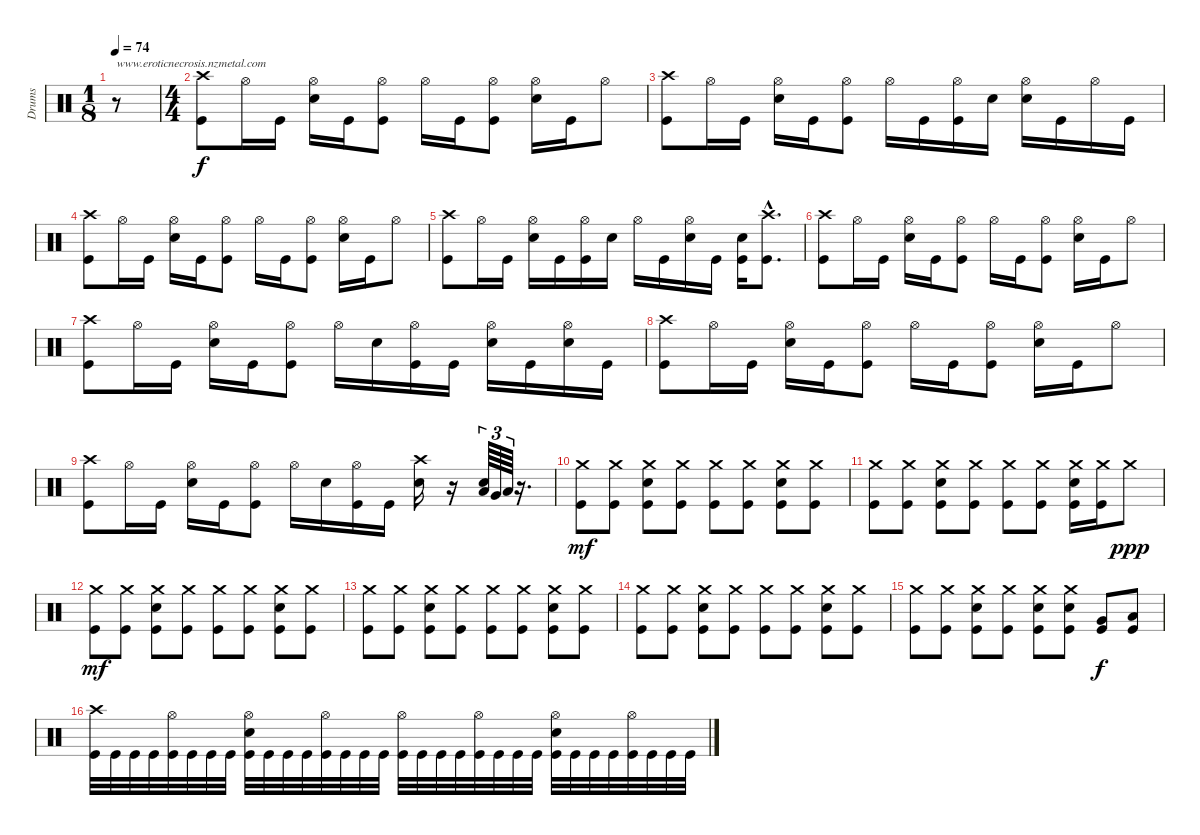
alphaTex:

\track ("Drums" "Drums") {instrument percussion}
\staff {score}
\articulation defaults
\ts (1 8)
\section ("" "")
\tempo 74
\clef neutral
\ks c
r.8{txt "www.eroticnecrosis.nzmetal.com" dy f} |
\ts (4 4)
("Crash high (hit)" "Kick (hit)").8 "Hi-Hat (open)".16 "Kick (hit)".16 ("Hi-Hat (open)" "Snare (hit) 2").16 "Kick (hit)".16 ("Hi-Hat (open)" "Kick (hit)").8 "Hi-Hat (open)".16 "Kick (hit)".16 ("Hi-Hat (open)" "Kick (hit)").8 ("Hi-Hat (open)" "Snare (hit) 2").16 "Kick (hit)".16 "Hi-Hat (open)".8 |
("Crash high (hit)" "Kick (hit)").8 "Hi-Hat (open)".16 "Kick (hit)".16 ("Hi-Hat (open)" "Snare (hit) 2").16 "Kick (hit)".16 ("Hi-Hat (open)" "Kick (hit)").8 "Hi-Hat (open)".16 "Kick (hit)".16 ("Hi-Hat (open)" "Kick (hit)").16 "Snare (hit) 2".16 ("Hi-Hat (open)" "Snare (hit) 2").16 "Kick (hit)".16 "Hi-Hat (open)".16 "Kick (hit)".16 |
("Crash high (hit)" "Kick (hit)").8 "Hi-Hat (open)".16 "Kick (hit)".16 ("Hi-Hat (open)" "Snare (hit) 2").16 "Kick (hit)".16 ("Hi-Hat (open)" "Kick (hit)").8 "Hi-Hat (open)".16 "Kick (hit)".16 ("Hi-Hat (open)" "Kick (hit)").8 ("Hi-Hat (open)" "Snare (hit) 2").16 "Kick (hit)".16 "Hi-Hat (open)".8 |
("Crash high (hit)" "Kick (hit)").8 "Hi-Hat (open)".16 "Kick (hit)".16 ("Hi-Hat (open)" "Snare (hit) 2").16 "Kick (hit)".16 ("Hi-Hat (open)" "Kick (hit)").16 "Snare (hit) 2".16 "Hi-Hat (open)".16 "Kick (hit)".16 ("Hi-Hat (open)" "Snare (hit) 2").16 "Kick (hit)".16 ("Snare (hit) 2" "Kick (hit)").16 ("Crash high (hit)"{hac} "Kick (hit)"{hac}).8{d} |
("Crash high (hit)" "Kick (hit)").8 "Hi-Hat (open)".16 "Kick (hit)".16 ("Hi-Hat (open)" "Snare (hit) 2").16 "Kick (hit)".16 ("Hi-Hat (open)" "Kick (hit)").8 "Hi-Hat (open)".16 "Kick (hit)".16 ("Hi-Hat (open)" "Kick (hit)").8 ("Hi-Hat (open)" "Snare (hit) 2").16 "Kick (hit)".16 "Hi-Hat (open)".8 |
("Crash high (hit)" "Kick (hit)").8 "Hi-Hat (open)".16 "Kick (hit)".16 ("Hi-Hat (open)" "Snare (hit) 2").16 "Kick (hit)".16 ("Hi-Hat (open)" "Kick (hit)").8 "Hi-Hat (open)".16 "Snare (hit) 2".16 ("Hi-Hat (open)" "Kick (hit)").16 "Kick (hit)".16 ("Hi-Hat (open)" "Snare (hit) 2").16 "Kick (hit)".16 ("Hi-Hat (open)" "Snare (hit) 2").16 "Kick (hit)".16 |
("Crash high (hit)" "Kick (hit)").8 "Hi-Hat (open)".16 "Kick (hit)".16 ("Hi-Hat (open)" "Snare (hit) 2").16 "Kick (hit)".16 ("Hi-Hat (open)" "Kick (hit)").8 "Hi-Hat (open)".16 "Kick (hit)".16 ("Hi-Hat (open)" "Kick (hit)").8 ("Hi-Hat (open)" "Snare (hit) 2").16 "Kick (hit)".16 "Hi-Hat (open)".8 |
("Crash high (hit)" "Kick (hit)").8 "Hi-Hat (open)".16 "Kick (hit)".16 ("Hi-Hat (open)" "Snare (hit) 2").16 "Kick (hit)".16 ("Hi-Hat (open)" "Kick (hit)").8 "Hi-Hat (open)".16 "Snare (hit) 2".16 ("Hi-Hat (open)" "Kick (hit)").16 "Kick (hit)".16 ("Crash high (hit)" "Snare (hit) 2").16 r.16 ("Low Tom (hit)" "Snare (hit) 2").64{tu (3 2)} "Very Low Tom (hit)".64{tu (3 2)} "Low Floor Tom (hit)".64{tu (3 2)} r.16{d} |
\section ("" "")
("Crash medium (hit)" "Kick (hit)").8{dy mf} ("Crash medium (hit)" "Kick (hit)").8 ("Crash medium (hit)" "Snare (hit) 2" "Kick (hit)").8 ("Crash medium (hit)" "Kick (hit)").8 ("Crash medium (hit)" "Kick (hit)").8 ("Crash medium (hit)" "Kick (hit)").8 ("Crash medium (hit)" "Snare (hit) 2" "Kick (hit)").8 ("Crash medium (hit)" "Kick (hit)").8 |
("Crash medium (hit)" "Kick (hit)").8 ("Crash medium (hit)" "Kick (hit)").8 ("Crash medium (hit)" "Snare (hit) 2" "Kick (hit)").8 ("Crash medium (hit)" "Kick (hit)").8 ("Crash medium (hit)" "Kick (hit)").8 ("Crash medium (hit)" "Kick (hit)").8 ("Crash medium (hit)" "Snare (hit) 2" "Kick (hit)").16 ("Crash medium (hit)" "Kick (hit)").16 "Crash medium (hit)".8{dy ppp} |
("Crash medium (hit)" "Kick (hit)").8{dy mf} ("Crash medium (hit)" "Kick (hit)").8 ("Crash medium (hit)" "Snare (hit) 2" "Kick (hit)").8 ("Crash medium (hit)" "Kick (hit)").8 ("Crash medium (hit)" "Kick (hit)").8 ("Crash medium (hit)" "Kick (hit)").8 ("Crash medium (hit)" "Snare (hit) 2" "Kick (hit)").8 ("Crash medium (hit)" "Kick (hit)").8 |
("Crash medium (hit)" "Kick (hit)").8 ("Crash medium (hit)" "Kick (hit)").8 ("Crash medium (hit)" "Snare (hit) 2" "Kick (hit)").8 ("Crash medium (hit)" "Kick (hit)").8 ("Crash medium (hit)" "Kick (hit)").8 ("Crash medium (hit)" "Kick (hit)").8 ("Crash medium (hit)" "Snare (hit) 2" "Kick (hit)").8 ("Crash medium (hit)" "Kick (hit)").8 |
("Crash medium (hit)" "Kick (hit)").8 ("Crash medium (hit)" "Kick (hit)").8 ("Crash medium (hit)" "Snare (hit) 2" "Kick (hit)").8 ("Crash medium (hit)" "Kick (hit)").8 ("Crash medium (hit)" "Kick (hit)").8 ("Crash medium (hit)" "Kick (hit)").8 ("Crash medium (hit)" "Snare (hit) 2" "Kick (hit)").8 ("Crash medium (hit)" "Kick (hit)").8 |
("Crash medium (hit)" "Kick (hit)").8 ("Crash medium (hit)" "Kick (hit)").8 ("Crash medium (hit)" "Snare (hit) 2" "Kick (hit)").8 ("Crash medium (hit)" "Kick (hit)").8 ("Crash medium (hit)" "Snare (hit) 2" "Kick (hit)").8 ("Crash medium (hit)" "Snare (hit) 2" "Kick (hit)").8 ("Very Low Tom (hit)" "Kick (hit)").8{dy f} ("Low Floor Tom (hit)" "Kick (hit)").8 |
\section ("" "")
("Crash high (hit)" "Kick (hit)").32 "Kick (hit)".32 "Kick (hit)".32 "Kick (hit)".32 ("Hi-Hat (open)" "Kick (hit)").32 "Kick (hit)".32 "Kick (hit)".32 "Kick (hit)".32 ("Hi-Hat (open)" "Snare (hit) 2" "Kick (hit)").32 "Kick (hit)".32 "Kick (hit)".32 "Kick (hit)".32 ("Hi-Hat (open)" "Kick (hit)").32 "Kick (hit)".32 "Kick (hit)".32 "Kick (hit)".32 ("Hi-Hat (open)" "Kick (hit)").32 "Kick (hit)".32 "Kick (hit)".32 "Kick (hit)".32 ("Hi-Hat (open)" "Kick (hit)").32 "Kick (hit)".32 "Kick (hit)".32 "Kick (hit)".32 ("Hi-Hat (open)" "Snare (hit) 2" "Kick (hit)").32 "Kick (hit)".32 "Kick (hit)".32 "Kick (hit)".32 ("Hi-Hat (open)" "Kick (hit)").32 "Kick (hit)".32 "Kick (hit)".32 "Kick (hit)".32
